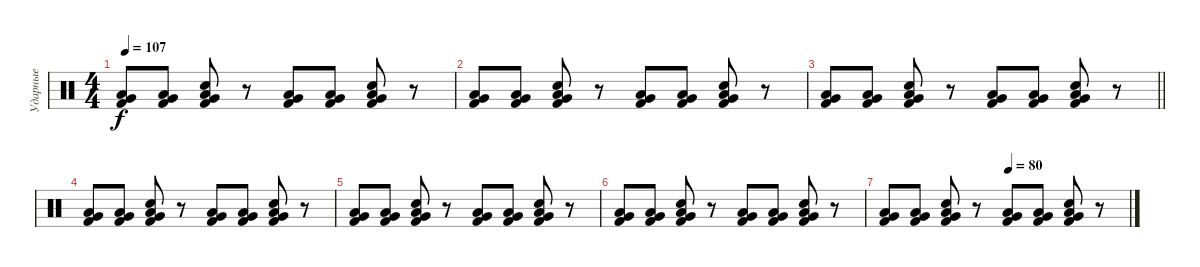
\track ("Ударные" "Ударные") {instrument percussion}
\staff {score}
\articulation defaults
\ts (4 4)
\tempo 107
\clef neutral
\ks c
("Kick (hit) 2" "Low Tom (hit)" "Very Low Tom (hit)").8{dy f} ("Kick (hit) 2" "Low Tom (hit)" "Very Low Tom (hit)").8 ("Snare (hit) 2" "Low Tom (hit)" "Very Low Tom (hit)" "Kick (hit) 2").8 r.8 ("Kick (hit) 2" "Low Tom (hit)" "Very Low Tom (hit)").8 ("Kick (hit) 2" "Low Tom (hit)" "Very Low Tom (hit)").8 ("Snare (hit) 2" "Low Tom (hit)" "Very Low Tom (hit)" "Kick (hit) 2").8 r.8 |
("Kick (hit) 2" "Low Tom (hit)" "Very Low Tom (hit)").8 ("Kick (hit) 2" "Low Tom (hit)" "Very Low Tom (hit)").8 ("Snare (hit) 2" "Low Tom (hit)" "Very Low Tom (hit)" "Kick (hit) 2").8 r.8 ("Kick (hit) 2" "Low Tom (hit)" "Very Low Tom (hit)").8 ("Kick (hit) 2" "Low Tom (hit)" "Very Low Tom (hit)").8 ("Snare (hit) 2" "Low Tom (hit)" "Very Low Tom (hit)" "Kick (hit) 2").8 r.8 |
\barLineRight lightlight
("Kick (hit) 2" "Low Tom (hit)" "Very Low Tom (hit)").8 ("Kick (hit) 2" "Low Tom (hit)" "Very Low Tom (hit)").8 ("Snare (hit) 2" "Low Tom (hit)" "Very Low Tom (hit)" "Kick (hit) 2").8 r.8 ("Kick (hit) 2" "Low Tom (hit)" "Very Low Tom (hit)").8 ("Kick (hit) 2" "Low Tom (hit)" "Very Low Tom (hit)").8 ("Snare (hit) 2" "Low Tom (hit)" "Very Low Tom (hit)" "Kick (hit) 2").8 r.8 |
("Kick (hit) 2" "Low Tom (hit)" "Very Low Tom (hit)").8 ("Kick (hit) 2" "Low Tom (hit)" "Very Low Tom (hit)").8 ("Snare (hit) 2" "Low Tom (hit)" "Very Low Tom (hit)" "Kick (hit) 2").8 r.8 ("Kick (hit) 2" "Low Tom (hit)" "Very Low Tom (hit)").8 ("Kick (hit) 2" "Low Tom (hit)" "Very Low Tom (hit)").8 ("Snare (hit) 2" "Low Tom (hit)" "Very Low Tom (hit)" "Kick (hit) 2").8 r.8 |
("Kick (hit) 2" "Low Tom (hit)" "Very Low Tom (hit)").8 ("Kick (hit) 2" "Low Tom (hit)" "Very Low Tom (hit)").8 ("Snare (hit) 2" "Low Tom (hit)" "Very Low Tom (hit)" "Kick (hit) 2").8 r.8 ("Kick (hit) 2" "Low Tom (hit)" "Very Low Tom (hit)").8 ("Kick (hit) 2" "Low Tom (hit)" "Very Low Tom (hit)").8 ("Snare (hit) 2" "Low Tom (hit)" "Very Low Tom (hit)" "Kick (hit) 2").8 r.8 |
("Kick (hit) 2" "Low Tom (hit)" "Very Low Tom (hit)").8 ("Kick (hit) 2" "Low Tom (hit)" "Very Low Tom (hit)").8 ("Snare (hit) 2" "Low Tom (hit)" "Very Low Tom (hit)" "Kick (hit) 2").8 r.8 ("Kick (hit) 2" "Low Tom (hit)" "Very Low Tom (hit)").8 ("Kick (hit) 2" "Low Tom (hit)" "Very Low Tom (hit)").8 ("Snare (hit) 2" "Low Tom (hit)" "Very Low Tom (hit)" "Kick (hit) 2").8 r.8 |
\tempo (80 0.5)
("Kick (hit) 2" "Low Tom (hit)" "Very Low Tom (hit)").8 ("Kick (hit) 2" "Low Tom (hit)" "Very Low Tom (hit)").8 ("Snare (hit) 2" "Low Tom (hit)" "Very Low Tom (hit)" "Kick (hit) 2").8 r.8 ("Kick (hit) 2" "Low Tom (hit)" "Very Low Tom (hit)").8 ("Kick (hit) 2" "Low Tom (hit)" "Very Low Tom (hit)").8 ("Snare (hit) 2" "Low Tom (hit)" "Very Low Tom (hit)" "Kick (hit) 2").8 r.8
